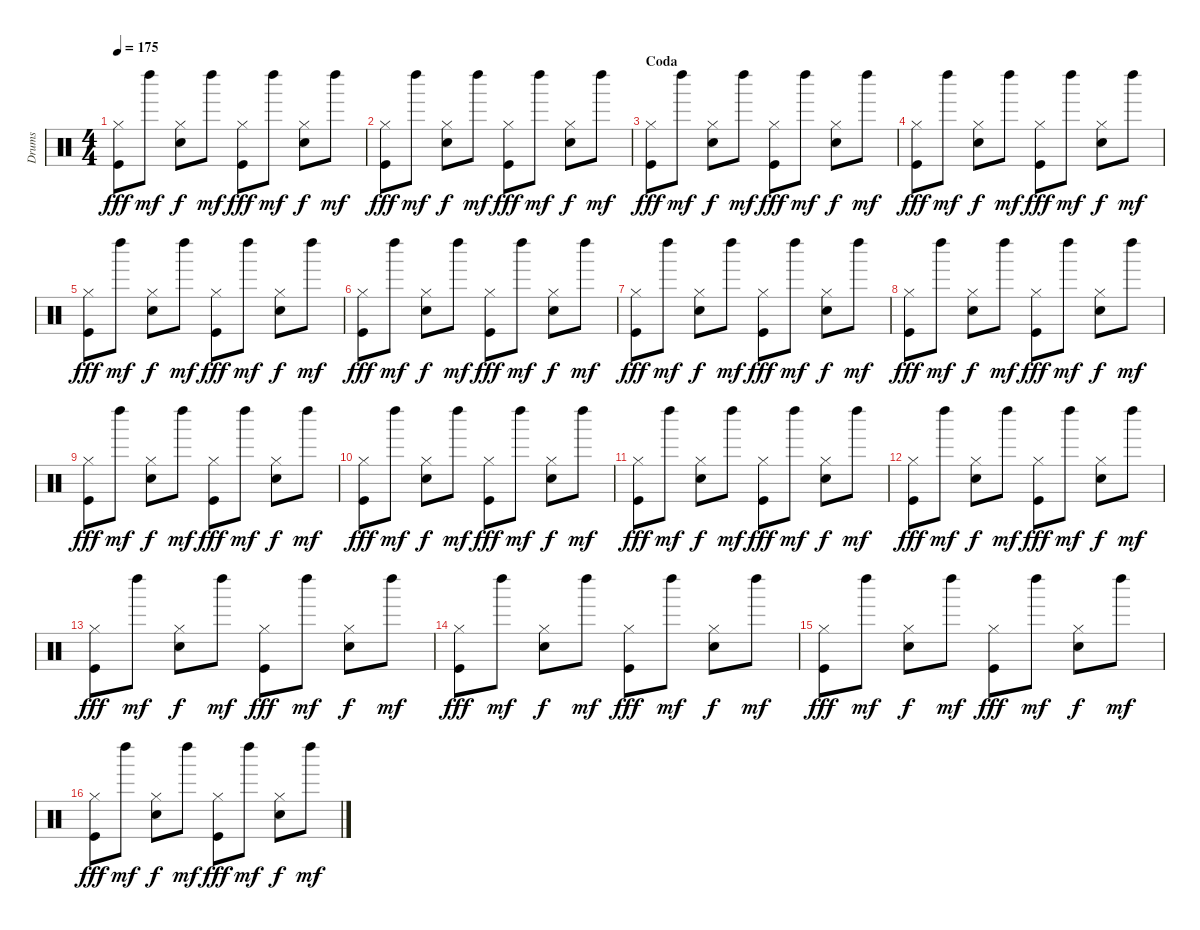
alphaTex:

\track ("Drums" "Drums") {instrument percussion}
\staff {score}
\articulation defaults
\ts (4 4)
\tempo 175
\clef neutral
\ks c
("Hi-Hat (closed)" "Kick (hit)").8{dy fff} "Left Maraca (hit)".8{dy mf} ("Hi-Hat (closed)" "Snare (hit) 2").8{dy f} "Left Maraca (hit)".8{dy mf} ("Hi-Hat (closed)" "Kick (hit)").8{dy fff} "Left Maraca (hit)".8{dy mf} ("Hi-Hat (closed)" "Snare (hit) 2").8{dy f} "Left Maraca (hit)".8{dy mf} |
("Hi-Hat (closed)" "Kick (hit)").8{dy fff} "Left Maraca (hit)".8{dy mf} ("Hi-Hat (closed)" "Snare (hit) 2").8{dy f} "Left Maraca (hit)".8{dy mf} ("Hi-Hat (closed)" "Kick (hit)").8{dy fff} "Left Maraca (hit)".8{dy mf} ("Hi-Hat (closed)" "Snare (hit) 2").8{dy f} "Left Maraca (hit)".8{dy mf} |
\section ("" "Coda")
("Hi-Hat (closed)" "Kick (hit)").8{dy fff} "Left Maraca (hit)".8{dy mf} ("Hi-Hat (closed)" "Snare (hit) 2").8{dy f} "Left Maraca (hit)".8{dy mf} ("Hi-Hat (closed)" "Kick (hit)").8{dy fff} "Left Maraca (hit)".8{dy mf} ("Hi-Hat (closed)" "Snare (hit) 2").8{dy f} "Left Maraca (hit)".8{dy mf} |
("Hi-Hat (closed)" "Kick (hit)").8{dy fff} "Left Maraca (hit)".8{dy mf} ("Hi-Hat (closed)" "Snare (hit) 2").8{dy f} "Left Maraca (hit)".8{dy mf} ("Hi-Hat (closed)" "Kick (hit)").8{dy fff} "Left Maraca (hit)".8{dy mf} ("Hi-Hat (closed)" "Snare (hit) 2").8{dy f} "Left Maraca (hit)".8{dy mf} |
("Hi-Hat (closed)" "Kick (hit)").8{dy fff} "Left Maraca (hit)".8{dy mf} ("Hi-Hat (closed)" "Snare (hit) 2").8{dy f} "Left Maraca (hit)".8{dy mf} ("Hi-Hat (closed)" "Kick (hit)").8{dy fff} "Left Maraca (hit)".8{dy mf} ("Hi-Hat (closed)" "Snare (hit) 2").8{dy f} "Left Maraca (hit)".8{dy mf} |
("Hi-Hat (closed)" "Kick (hit)").8{dy fff} "Left Maraca (hit)".8{dy mf} ("Hi-Hat (closed)" "Snare (hit) 2").8{dy f} "Left Maraca (hit)".8{dy mf} ("Hi-Hat (closed)" "Kick (hit)").8{dy fff} "Left Maraca (hit)".8{dy mf} ("Hi-Hat (closed)" "Snare (hit) 2").8{dy f} "Left Maraca (hit)".8{dy mf} |
("Hi-Hat (closed)" "Kick (hit)").8{dy fff} "Left Maraca (hit)".8{dy mf} ("Hi-Hat (closed)" "Snare (hit) 2").8{dy f} "Left Maraca (hit)".8{dy mf} ("Hi-Hat (closed)" "Kick (hit)").8{dy fff} "Left Maraca (hit)".8{dy mf} ("Hi-Hat (closed)" "Snare (hit) 2").8{dy f} "Left Maraca (hit)".8{dy mf} |
("Hi-Hat (closed)" "Kick (hit)").8{dy fff} "Left Maraca (hit)".8{dy mf} ("Hi-Hat (closed)" "Snare (hit) 2").8{dy f} "Left Maraca (hit)".8{dy mf} ("Hi-Hat (closed)" "Kick (hit)").8{dy fff} "Left Maraca (hit)".8{dy mf} ("Hi-Hat (closed)" "Snare (hit) 2").8{dy f} "Left Maraca (hit)".8{dy mf} |
("Hi-Hat (closed)" "Kick (hit)").8{dy fff} "Left Maraca (hit)".8{dy mf} ("Hi-Hat (closed)" "Snare (hit) 2").8{dy f} "Left Maraca (hit)".8{dy mf} ("Hi-Hat (closed)" "Kick (hit)").8{dy fff} "Left Maraca (hit)".8{dy mf} ("Hi-Hat (closed)" "Snare (hit) 2").8{dy f} "Left Maraca (hit)".8{dy mf} |
("Hi-Hat (closed)" "Kick (hit)").8{dy fff} "Left Maraca (hit)".8{dy mf} ("Hi-Hat (closed)" "Snare (hit) 2").8{dy f} "Left Maraca (hit)".8{dy mf} ("Hi-Hat (closed)" "Kick (hit)").8{dy fff} "Left Maraca (hit)".8{dy mf} ("Hi-Hat (closed)" "Snare (hit) 2").8{dy f} "Left Maraca (hit)".8{dy mf} |
("Hi-Hat (closed)" "Kick (hit)").8{dy fff} "Left Maraca (hit)".8{dy mf} ("Hi-Hat (closed)" "Snare (hit) 2").8{dy f} "Left Maraca (hit)".8{dy mf} ("Hi-Hat (closed)" "Kick (hit)").8{dy fff} "Left Maraca (hit)".8{dy mf} ("Hi-Hat (closed)" "Snare (hit) 2").8{dy f} "Left Maraca (hit)".8{dy mf} |
("Hi-Hat (closed)" "Kick (hit)").8{dy fff} "Left Maraca (hit)".8{dy mf} ("Hi-Hat (closed)" "Snare (hit) 2").8{dy f} "Left Maraca (hit)".8{dy mf} ("Hi-Hat (closed)" "Kick (hit)").8{dy fff} "Left Maraca (hit)".8{dy mf} ("Hi-Hat (closed)" "Snare (hit) 2").8{dy f} "Left Maraca (hit)".8{dy mf} |
("Hi-Hat (closed)" "Kick (hit)").8{dy fff} "Left Maraca (hit)".8{dy mf} ("Hi-Hat (closed)" "Snare (hit) 2").8{dy f} "Left Maraca (hit)".8{dy mf} ("Hi-Hat (closed)" "Kick (hit)").8{dy fff} "Left Maraca (hit)".8{dy mf} ("Hi-Hat (closed)" "Snare (hit) 2").8{dy f} "Left Maraca (hit)".8{dy mf} |
("Hi-Hat (closed)" "Kick (hit)").8{dy fff} "Left Maraca (hit)".8{dy mf} ("Hi-Hat (closed)" "Snare (hit) 2").8{dy f} "Left Maraca (hit)".8{dy mf} ("Hi-Hat (closed)" "Kick (hit)").8{dy fff} "Left Maraca (hit)".8{dy mf} ("Hi-Hat (closed)" "Snare (hit) 2").8{dy f} "Left Maraca (hit)".8{dy mf} |
("Hi-Hat (closed)" "Kick (hit)").8{dy fff} "Left Maraca (hit)".8{dy mf} ("Hi-Hat (closed)" "Snare (hit) 2").8{dy f} "Left Maraca (hit)".8{dy mf} ("Hi-Hat (closed)" "Kick (hit)").8{dy fff} "Left Maraca (hit)".8{dy mf} ("Hi-Hat (closed)" "Snare (hit) 2").8{dy f} "Left Maraca (hit)".8{dy mf} |
("Hi-Hat (closed)" "Kick (hit)").8{dy fff} "Left Maraca (hit)".8{dy mf} ("Hi-Hat (closed)" "Snare (hit) 2").8{dy f} "Left Maraca (hit)".8{dy mf} ("Hi-Hat (closed)" "Kick (hit)").8{dy fff} "Left Maraca (hit)".8{dy mf} ("Hi-Hat (closed)" "Snare (hit) 2").8{dy f} "Left Maraca (hit)".8{dy mf}
